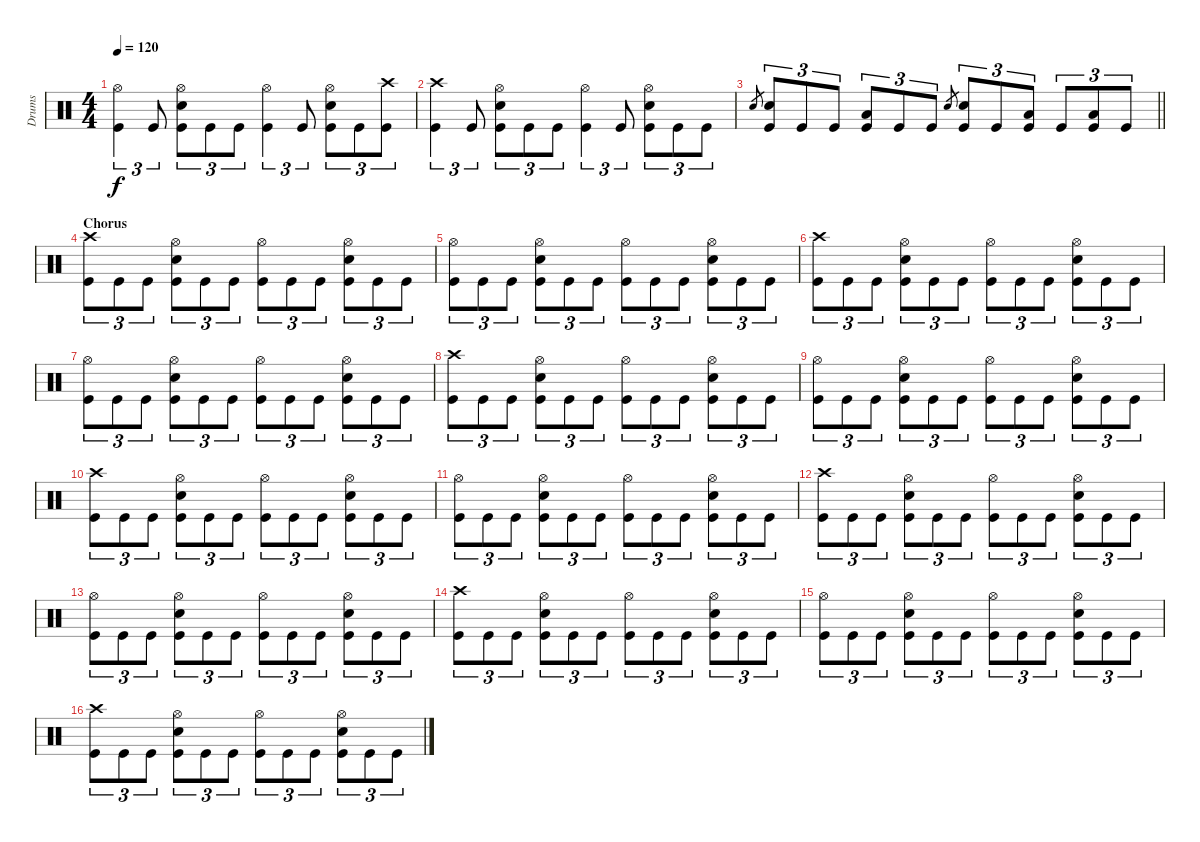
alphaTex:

\track ("Drums" "Drums") {instrument percussion}
\staff {score}
\articulation defaults
\ts (4 4)
\tempo 120
\clef neutral
\ks c
("Hi-Hat (open)" "Kick (hit)").4{tu (3 2) dy f} "Kick (hit)".8{tu (3 2)} ("Hi-Hat (open)" "Snare (hit) 2" "Kick (hit)").8{tu (3 2)} "Kick (hit)".8{tu (3 2)} "Kick (hit)".8{tu (3 2)} ("Hi-Hat (open)" "Kick (hit)").4{tu (3 2)} "Kick (hit)".8{tu (3 2)} ("Hi-Hat (open)" "Snare (hit) 2" "Kick (hit)").8{tu (3 2)} "Kick (hit)".8{tu (3 2)} ("Crash high (hit)" "Kick (hit)").8{tu (3 2)} |
("Crash high (hit)" "Kick (hit)").4{tu (3 2)} "Kick (hit)".8{tu (3 2)} ("Hi-Hat (open)" "Snare (hit) 2" "Kick (hit)").8{tu (3 2)} "Kick (hit)".8{tu (3 2)} "Kick (hit)".8{tu (3 2)} ("Hi-Hat (open)" "Kick (hit)").4{tu (3 2)} "Kick (hit)".8{tu (3 2)} ("Hi-Hat (open)" "Snare (hit) 2" "Kick (hit)").8{tu (3 2)} "Kick (hit)".8{tu (3 2)} "Kick (hit)".8{tu (3 2)} |
\barLineRight lightlight "Snare (hit) 2".8{gr}
("Snare (hit) 2" "Kick (hit)").8{tu (3 2)} "Kick (hit)".8{tu (3 2)} "Kick (hit)".8{tu (3 2)} ("Low Tom (hit)" "Kick (hit)").8{tu (3 2)} "Kick (hit)".8{tu (3 2)} "Kick (hit)".8{tu (3 2)} "Snare (hit) 2".8{gr} ("Snare (hit) 2" "Kick (hit)").8{tu (3 2)} "Kick (hit)".8{tu (3 2)} ("Low Tom (hit)" "Kick (hit)").8{tu (3 2)} "Kick (hit)".8{tu (3 2)} ("Low Tom (hit)" "Kick (hit)").8{tu (3 2)} "Kick (hit)".8{tu (3 2)} |
\section ("" "Chorus")
("Crash high (hit)" "Kick (hit)").8{tu (3 2)} "Kick (hit)".8{tu (3 2)} "Kick (hit)".8{tu (3 2)} ("Hi-Hat (open)" "Snare (hit) 2" "Kick (hit)").8{tu (3 2)} "Kick (hit)".8{tu (3 2)} "Kick (hit)".8{tu (3 2)} ("Hi-Hat (open)" "Kick (hit)").8{tu (3 2)} "Kick (hit)".8{tu (3 2)} "Kick (hit)".8{tu (3 2)} ("Hi-Hat (open)" "Snare (hit) 2" "Kick (hit)").8{tu (3 2)} "Kick (hit)".8{tu (3 2)} "Kick (hit)".8{tu (3 2)} |
("Hi-Hat (open)" "Kick (hit)").8{tu (3 2)} "Kick (hit)".8{tu (3 2)} "Kick (hit)".8{tu (3 2)} ("Hi-Hat (open)" "Snare (hit) 2" "Kick (hit)").8{tu (3 2)} "Kick (hit)".8{tu (3 2)} "Kick (hit)".8{tu (3 2)} ("Hi-Hat (open)" "Kick (hit)").8{tu (3 2)} "Kick (hit)".8{tu (3 2)} "Kick (hit)".8{tu (3 2)} ("Hi-Hat (open)" "Snare (hit) 2" "Kick (hit)").8{tu (3 2)} "Kick (hit)".8{tu (3 2)} "Kick (hit)".8{tu (3 2)} |
("Crash high (hit)" "Kick (hit)").8{tu (3 2)} "Kick (hit)".8{tu (3 2)} "Kick (hit)".8{tu (3 2)} ("Hi-Hat (open)" "Snare (hit) 2" "Kick (hit)").8{tu (3 2)} "Kick (hit)".8{tu (3 2)} "Kick (hit)".8{tu (3 2)} ("Hi-Hat (open)" "Kick (hit)").8{tu (3 2)} "Kick (hit)".8{tu (3 2)} "Kick (hit)".8{tu (3 2)} ("Hi-Hat (open)" "Snare (hit) 2" "Kick (hit)").8{tu (3 2)} "Kick (hit)".8{tu (3 2)} "Kick (hit)".8{tu (3 2)} |
("Hi-Hat (open)" "Kick (hit)").8{tu (3 2)} "Kick (hit)".8{tu (3 2)} "Kick (hit)".8{tu (3 2)} ("Hi-Hat (open)" "Snare (hit) 2" "Kick (hit)").8{tu (3 2)} "Kick (hit)".8{tu (3 2)} "Kick (hit)".8{tu (3 2)} ("Hi-Hat (open)" "Kick (hit)").8{tu (3 2)} "Kick (hit)".8{tu (3 2)} "Kick (hit)".8{tu (3 2)} ("Hi-Hat (open)" "Snare (hit) 2" "Kick (hit)").8{tu (3 2)} "Kick (hit)".8{tu (3 2)} "Kick (hit)".8{tu (3 2)} |
("Crash high (hit)" "Kick (hit)").8{tu (3 2)} "Kick (hit)".8{tu (3 2)} "Kick (hit)".8{tu (3 2)} ("Hi-Hat (open)" "Snare (hit) 2" "Kick (hit)").8{tu (3 2)} "Kick (hit)".8{tu (3 2)} "Kick (hit)".8{tu (3 2)} ("Hi-Hat (open)" "Kick (hit)").8{tu (3 2)} "Kick (hit)".8{tu (3 2)} "Kick (hit)".8{tu (3 2)} ("Hi-Hat (open)" "Snare (hit) 2" "Kick (hit)").8{tu (3 2)} "Kick (hit)".8{tu (3 2)} "Kick (hit)".8{tu (3 2)} |
("Hi-Hat (open)" "Kick (hit)").8{tu (3 2)} "Kick (hit)".8{tu (3 2)} "Kick (hit)".8{tu (3 2)} ("Hi-Hat (open)" "Snare (hit) 2" "Kick (hit)").8{tu (3 2)} "Kick (hit)".8{tu (3 2)} "Kick (hit)".8{tu (3 2)} ("Hi-Hat (open)" "Kick (hit)").8{tu (3 2)} "Kick (hit)".8{tu (3 2)} "Kick (hit)".8{tu (3 2)} ("Hi-Hat (open)" "Snare (hit) 2" "Kick (hit)").8{tu (3 2)} "Kick (hit)".8{tu (3 2)} "Kick (hit)".8{tu (3 2)} |
("Crash high (hit)" "Kick (hit)").8{tu (3 2)} "Kick (hit)".8{tu (3 2)} "Kick (hit)".8{tu (3 2)} ("Hi-Hat (open)" "Snare (hit) 2" "Kick (hit)").8{tu (3 2)} "Kick (hit)".8{tu (3 2)} "Kick (hit)".8{tu (3 2)} ("Hi-Hat (open)" "Kick (hit)").8{tu (3 2)} "Kick (hit)".8{tu (3 2)} "Kick (hit)".8{tu (3 2)} ("Hi-Hat (open)" "Snare (hit) 2" "Kick (hit)").8{tu (3 2)} "Kick (hit)".8{tu (3 2)} "Kick (hit)".8{tu (3 2)} |
("Hi-Hat (open)" "Kick (hit)").8{tu (3 2)} "Kick (hit)".8{tu (3 2)} "Kick (hit)".8{tu (3 2)} ("Hi-Hat (open)" "Snare (hit) 2" "Kick (hit)").8{tu (3 2)} "Kick (hit)".8{tu (3 2)} "Kick (hit)".8{tu (3 2)} ("Hi-Hat (open)" "Kick (hit)").8{tu (3 2)} "Kick (hit)".8{tu (3 2)} "Kick (hit)".8{tu (3 2)} ("Hi-Hat (open)" "Snare (hit) 2" "Kick (hit)").8{tu (3 2)} "Kick (hit)".8{tu (3 2)} "Kick (hit)".8{tu (3 2)} |
("Crash high (hit)" "Kick (hit)").8{tu (3 2)} "Kick (hit)".8{tu (3 2)} "Kick (hit)".8{tu (3 2)} ("Hi-Hat (open)" "Snare (hit) 2" "Kick (hit)").8{tu (3 2)} "Kick (hit)".8{tu (3 2)} "Kick (hit)".8{tu (3 2)} ("Hi-Hat (open)" "Kick (hit)").8{tu (3 2)} "Kick (hit)".8{tu (3 2)} "Kick (hit)".8{tu (3 2)} ("Hi-Hat (open)" "Snare (hit) 2" "Kick (hit)").8{tu (3 2)} "Kick (hit)".8{tu (3 2)} "Kick (hit)".8{tu (3 2)} |
("Hi-Hat (open)" "Kick (hit)").8{tu (3 2)} "Kick (hit)".8{tu (3 2)} "Kick (hit)".8{tu (3 2)} ("Hi-Hat (open)" "Snare (hit) 2" "Kick (hit)").8{tu (3 2)} "Kick (hit)".8{tu (3 2)} "Kick (hit)".8{tu (3 2)} ("Hi-Hat (open)" "Kick (hit)").8{tu (3 2)} "Kick (hit)".8{tu (3 2)} "Kick (hit)".8{tu (3 2)} ("Hi-Hat (open)" "Snare (hit) 2" "Kick (hit)").8{tu (3 2)} "Kick (hit)".8{tu (3 2)} "Kick (hit)".8{tu (3 2)} |
("Crash high (hit)" "Kick (hit)").8{tu (3 2)} "Kick (hit)".8{tu (3 2)} "Kick (hit)".8{tu (3 2)} ("Hi-Hat (open)" "Snare (hit) 2" "Kick (hit)").8{tu (3 2)} "Kick (hit)".8{tu (3 2)} "Kick (hit)".8{tu (3 2)} ("Hi-Hat (open)" "Kick (hit)").8{tu (3 2)} "Kick (hit)".8{tu (3 2)} "Kick (hit)".8{tu (3 2)} ("Hi-Hat (open)" "Snare (hit) 2" "Kick (hit)").8{tu (3 2)} "Kick (hit)".8{tu (3 2)} "Kick (hit)".8{tu (3 2)} |
("Hi-Hat (open)" "Kick (hit)").8{tu (3 2)} "Kick (hit)".8{tu (3 2)} "Kick (hit)".8{tu (3 2)} ("Hi-Hat (open)" "Snare (hit) 2" "Kick (hit)").8{tu (3 2)} "Kick (hit)".8{tu (3 2)} "Kick (hit)".8{tu (3 2)} ("Hi-Hat (open)" "Kick (hit)").8{tu (3 2)} "Kick (hit)".8{tu (3 2)} "Kick (hit)".8{tu (3 2)} ("Hi-Hat (open)" "Snare (hit) 2" "Kick (hit)").8{tu (3 2)} "Kick (hit)".8{tu (3 2)} "Kick (hit)".8{tu (3 2)} |
("Crash high (hit)" "Kick (hit)").8{tu (3 2)} "Kick (hit)".8{tu (3 2)} "Kick (hit)".8{tu (3 2)} ("Hi-Hat (open)" "Snare (hit) 2" "Kick (hit)").8{tu (3 2)} "Kick (hit)".8{tu (3 2)} "Kick (hit)".8{tu (3 2)} ("Hi-Hat (open)" "Kick (hit)").8{tu (3 2)} "Kick (hit)".8{tu (3 2)} "Kick (hit)".8{tu (3 2)} ("Hi-Hat (open)" "Snare (hit) 2" "Kick (hit)").8{tu (3 2)} "Kick (hit)".8{tu (3 2)} "Kick (hit)".8{tu (3 2)}
